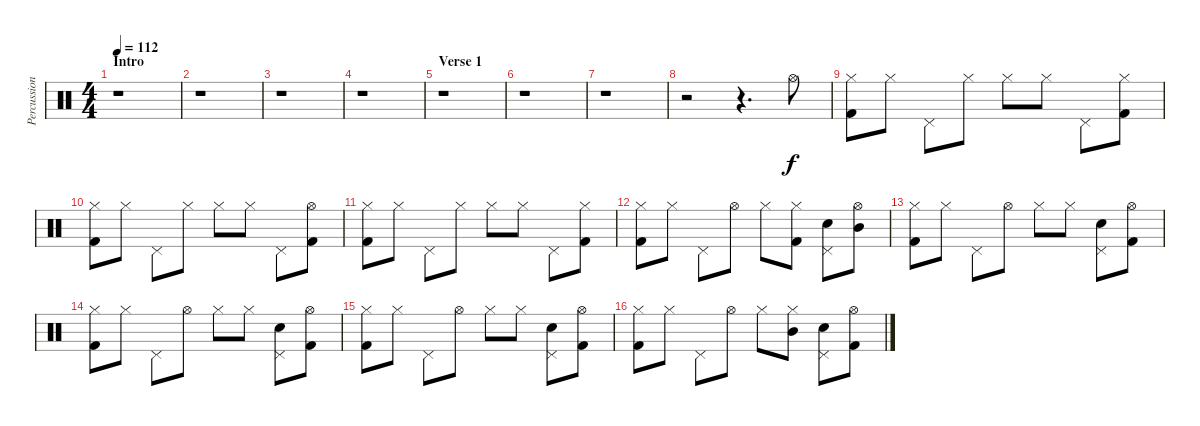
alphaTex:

\track ("Percussion" "Percussion") {instrument percussion}
\staff {score}
\articulation defaults
\ts (4 4)
\section ("" "Intro")
\tempo 112
\clef neutral
\ks c
r.1{dy f} |
r.1 |
r.1 |
r.1 |
\section ("" "Verse 1")
r.1 |
r.1 |
r.1 |
r.2 r.4{d} "Hi-Hat (open)".8 |
("Hi-Hat (closed)" "Kick (hit) 2").8 "Hi-Hat (closed)".8 "Pedal Hi-Hat (hit)".8 "Hi-Hat (closed)".8 "Hi-Hat (closed)".8 "Hi-Hat (closed)".8 "Pedal Hi-Hat (hit)".8 ("Hi-Hat (closed)" "Kick (hit) 2").8 |
("Hi-Hat (closed)" "Kick (hit) 2").8 "Hi-Hat (closed)".8 "Pedal Hi-Hat (hit)".8 "Hi-Hat (closed)".8 "Hi-Hat (closed)".8 "Hi-Hat (closed)".8 "Pedal Hi-Hat (hit)".8 ("Hi-Hat (open)" "Kick (hit) 2").8 |
("Hi-Hat (closed)" "Kick (hit) 2").8 "Hi-Hat (closed)".8 "Pedal Hi-Hat (hit)".8 "Hi-Hat (closed)".8 "Hi-Hat (closed)".8 "Hi-Hat (closed)".8 "Pedal Hi-Hat (hit)".8 ("Hi-Hat (closed)" "Kick (hit) 2").8 |
("Hi-Hat (closed)" "Kick (hit) 2").8 "Hi-Hat (closed)".8 "Pedal Hi-Hat (hit)".8 "Hi-Hat (open)".8 "Hi-Hat (closed)".8 ("Hi-Hat (closed)" "Kick (hit) 2").8 ("Pedal Hi-Hat (hit)" "Electric Snare (hit)").8 ("Hi-Hat (open)" "Mid Tom (hit)").8 |
("Hi-Hat (closed)" "Kick (hit) 2").8 "Hi-Hat (closed)".8 "Pedal Hi-Hat (hit)".8 "Hi-Hat (open)".8 "Hi-Hat (closed)".8 "Hi-Hat (closed)".8 ("Pedal Hi-Hat (hit)" "Electric Snare (hit)").8 ("Hi-Hat (open)" "Kick (hit) 2").8 |
("Hi-Hat (closed)" "Kick (hit) 2").8 "Hi-Hat (closed)".8 "Pedal Hi-Hat (hit)".8 "Hi-Hat (open)".8 "Hi-Hat (closed)".8 "Hi-Hat (closed)".8 ("Pedal Hi-Hat (hit)" "Electric Snare (hit)").8 ("Hi-Hat (open)" "Kick (hit) 2").8 |
("Hi-Hat (closed)" "Kick (hit) 2").8 "Hi-Hat (closed)".8 "Pedal Hi-Hat (hit)".8 "Hi-Hat (open)".8 "Hi-Hat (closed)".8 "Hi-Hat (closed)".8 ("Pedal Hi-Hat (hit)" "Electric Snare (hit)").8 ("Hi-Hat (open)" "Kick (hit) 2").8 |
("Hi-Hat (closed)" "Kick (hit) 2").8 "Hi-Hat (closed)".8 "Pedal Hi-Hat (hit)".8 "Hi-Hat (open)".8 "Hi-Hat (closed)".8 ("Hi-Hat (closed)" "Mid Tom (hit)").8 ("Pedal Hi-Hat (hit)" "Electric Snare (hit)").8 ("Hi-Hat (open)" "Kick (hit) 2").8
